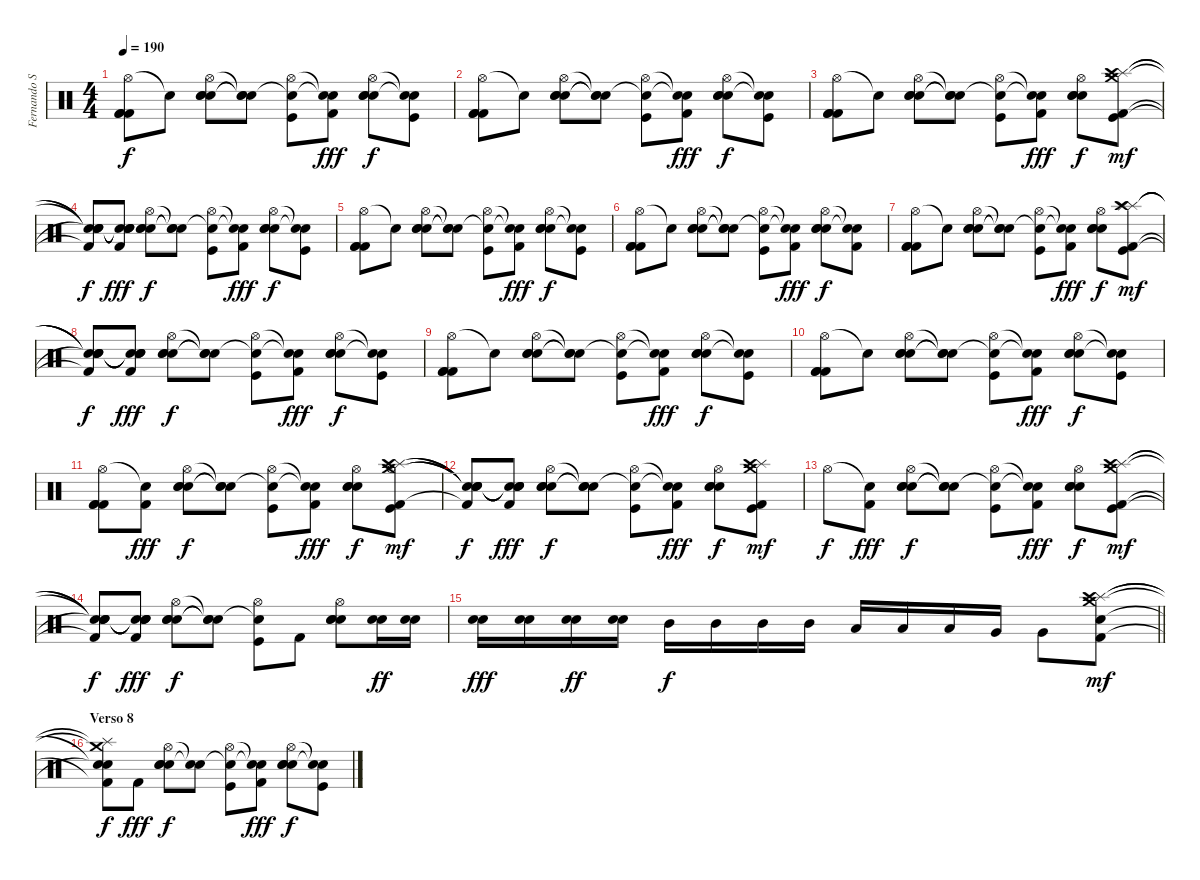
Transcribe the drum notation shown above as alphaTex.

\track ("Fernando Sarcella" "Fernando S") {instrument percussion}
\staff {score}
\articulation defaults
\ts (4 4)
\tempo 190
\clef neutral
\ks c
("Hi-Hat (open)" "Kick (hit) 2" "Kick (hit) 2" "Kick (hit) 2").8{dy f} "Snare (hit)"{t}.8 ("Hi-Hat (open)" "Electric Snare (hit)" "Electric Snare (hit)" "Electric Snare (hit)").8 ("Snare (hit)"{t} "Snare (hit)"{t} "Snare (hit)"{t}).8 ("Hi-Hat (open)" "Snare (hit)"{t} "Kick (hit)").8 ("Snare (hit)"{t} "Snare (hit)"{t} "Kick (hit) 2").8{dy fff} ("Hi-Hat (open)" "Electric Snare (hit)" "Electric Snare (hit)" "Electric Snare (hit)").8{dy f} ("Snare (hit)"{t} "Snare (hit)"{t} "Kick (hit)").8 |
("Hi-Hat (open)" "Kick (hit) 2" "Kick (hit) 2" "Kick (hit) 2").8 "Snare (hit)"{t}.8 ("Hi-Hat (open)" "Electric Snare (hit)" "Electric Snare (hit)" "Electric Snare (hit)").8 ("Snare (hit)"{t} "Snare (hit)"{t} "Snare (hit)"{t}).8 ("Hi-Hat (open)" "Snare (hit)"{t} "Kick (hit)").8 ("Snare (hit)"{t} "Snare (hit)"{t} "Kick (hit) 2").8{dy fff} ("Hi-Hat (open)" "Electric Snare (hit)" "Electric Snare (hit)" "Electric Snare (hit)").8{dy f} ("Snare (hit)"{t} "Snare (hit)"{t} "Kick (hit)").8 |
("Hi-Hat (open)" "Kick (hit) 2" "Kick (hit) 2" "Kick (hit) 2").8 "Snare (hit)"{t}.8 ("Hi-Hat (open)" "Electric Snare (hit)" "Electric Snare (hit)" "Electric Snare (hit)").8 ("Snare (hit)"{t} "Snare (hit)"{t} "Snare (hit)"{t}).8 ("Hi-Hat (open)" "Snare (hit)"{t} "Kick (hit)").8 ("Snare (hit)"{t} "Snare (hit)"{t} "Kick (hit) 2").8{dy fff} ("Hi-Hat (open)" "Electric Snare (hit)" "Electric Snare (hit)" "Electric Snare (hit)").8{dy f} ("Crash medium (hit)" "Splash (hit)" "Crash high (hit)" "Kick (hit) 2" "Kick (hit)").8{dy mf} |
("Snare (hit)"{t} "Snare (hit)"{t} "Snare (hit)"{t} "Snare (hit)"{t} "Kick (hit) 2"{t}).8{dy f} ("Snare (hit)"{t} "Snare (hit)"{t} "Snare (hit)"{t} "Snare (hit)"{t} "Kick (hit) 2").8{dy fff} ("Hi-Hat (open)" "Electric Snare (hit)" "Electric Snare (hit)" "Electric Snare (hit)").8{dy f} ("Snare (hit)"{t} "Snare (hit)"{t} "Snare (hit)"{t}).8 ("Hi-Hat (open)" "Snare (hit)"{t} "Kick (hit)").8 ("Snare (hit)"{t} "Snare (hit)"{t} "Kick (hit) 2").8{dy fff} ("Hi-Hat (open)" "Electric Snare (hit)" "Electric Snare (hit)" "Electric Snare (hit)").8{dy f} ("Snare (hit)"{t} "Snare (hit)"{t} "Kick (hit)").8 |
("Hi-Hat (open)" "Kick (hit) 2" "Kick (hit) 2" "Kick (hit) 2").8 "Snare (hit)"{t}.8 ("Hi-Hat (open)" "Electric Snare (hit)" "Electric Snare (hit)" "Electric Snare (hit)").8 ("Snare (hit)"{t} "Snare (hit)"{t} "Snare (hit)"{t}).8 ("Hi-Hat (open)" "Snare (hit)"{t} "Kick (hit)").8 ("Snare (hit)"{t} "Snare (hit)"{t} "Kick (hit) 2").8{dy fff} ("Hi-Hat (open)" "Electric Snare (hit)" "Electric Snare (hit)" "Electric Snare (hit)").8{dy f} ("Snare (hit)"{t} "Snare (hit)"{t} "Kick (hit)").8 |
("Hi-Hat (open)" "Kick (hit) 2" "Kick (hit) 2" "Kick (hit) 2").8 "Snare (hit)"{t}.8 ("Hi-Hat (open)" "Electric Snare (hit)" "Electric Snare (hit)" "Electric Snare (hit)").8 ("Snare (hit)"{t} "Snare (hit)"{t} "Snare (hit)"{t}).8 ("Hi-Hat (open)" "Snare (hit)"{t} "Kick (hit)").8 ("Snare (hit)"{t} "Snare (hit)"{t} "Kick (hit) 2").8{dy fff} ("Hi-Hat (open)" "Electric Snare (hit)" "Electric Snare (hit)" "Electric Snare (hit)").8{dy f} ("Snare (hit)"{t} "Snare (hit)"{t} "Kick (hit) 2").8 |
("Hi-Hat (open)" "Kick (hit) 2" "Kick (hit) 2" "Kick (hit) 2").8 "Snare (hit)"{t}.8 ("Hi-Hat (open)" "Electric Snare (hit)" "Electric Snare (hit)" "Electric Snare (hit)").8 ("Snare (hit)"{t} "Snare (hit)"{t} "Snare (hit)"{t}).8 ("Hi-Hat (open)" "Snare (hit)"{t} "Kick (hit)").8 ("Snare (hit)"{t} "Snare (hit)"{t} "Kick (hit) 2").8{dy fff} ("Hi-Hat (open)" "Electric Snare (hit)" "Electric Snare (hit)" "Electric Snare (hit)").8{dy f} ("Splash (hit)" "Splash (hit)" "Crash high (hit)" "Kick (hit) 2" "Kick (hit)").8{dy mf} |
("Snare (hit)"{t} "Snare (hit)"{t} "Snare (hit)"{t} "Snare (hit)"{t} "Kick (hit) 2"{t}).8{dy f} ("Snare (hit)"{t} "Snare (hit)"{t} "Snare (hit)"{t} "Snare (hit)"{t} "Kick (hit) 2").8{dy fff} ("Hi-Hat (open)" "Electric Snare (hit)" "Electric Snare (hit)" "Electric Snare (hit)").8{dy f} ("Snare (hit)"{t} "Snare (hit)"{t} "Snare (hit)"{t}).8 ("Hi-Hat (open)" "Snare (hit)"{t} "Kick (hit)").8 ("Snare (hit)"{t} "Snare (hit)"{t} "Kick (hit) 2").8{dy fff} ("Hi-Hat (open)" "Electric Snare (hit)" "Electric Snare (hit)" "Electric Snare (hit)").8{dy f} ("Snare (hit)"{t} "Snare (hit)"{t} "Kick (hit)").8 |
("Hi-Hat (open)" "Kick (hit) 2" "Kick (hit) 2" "Kick (hit) 2").8 "Snare (hit)"{t}.8 ("Hi-Hat (open)" "Electric Snare (hit)" "Electric Snare (hit)" "Electric Snare (hit)").8 ("Snare (hit)"{t} "Snare (hit)"{t} "Snare (hit)"{t}).8 ("Hi-Hat (open)" "Snare (hit)"{t} "Kick (hit)").8 ("Snare (hit)"{t} "Snare (hit)"{t} "Kick (hit) 2").8{dy fff} ("Hi-Hat (open)" "Electric Snare (hit)" "Electric Snare (hit)" "Electric Snare (hit)").8{dy f} ("Snare (hit)"{t} "Snare (hit)"{t} "Kick (hit)").8 |
("Hi-Hat (open)" "Kick (hit) 2" "Kick (hit) 2" "Kick (hit) 2").8 "Snare (hit)"{t}.8 ("Hi-Hat (open)" "Electric Snare (hit)" "Electric Snare (hit)" "Electric Snare (hit)").8 ("Snare (hit)"{t} "Snare (hit)"{t} "Snare (hit)"{t}).8 ("Hi-Hat (open)" "Snare (hit)"{t} "Kick (hit)").8 ("Snare (hit)"{t} "Snare (hit)"{t} "Kick (hit) 2").8{dy fff} ("Hi-Hat (open)" "Electric Snare (hit)" "Electric Snare (hit)" "Electric Snare (hit)").8{dy f} ("Snare (hit)"{t} "Snare (hit)"{t} "Kick (hit)").8 |
("Hi-Hat (open)" "Kick (hit) 2" "Kick (hit) 2" "Kick (hit) 2").8 ("Snare (hit)"{t} "Kick (hit) 2").8{dy fff} ("Hi-Hat (open)" "Electric Snare (hit)" "Electric Snare (hit)" "Electric Snare (hit)").8{dy f} ("Snare (hit)"{t} "Snare (hit)"{t} "Snare (hit)"{t}).8 ("Hi-Hat (open)" "Snare (hit)"{t} "Kick (hit)").8 ("Snare (hit)"{t} "Snare (hit)"{t} "Kick (hit) 2").8{dy fff} ("Hi-Hat (open)" "Electric Snare (hit)" "Electric Snare (hit)" "Electric Snare (hit)").8{dy f} ("Crash medium (hit)" "Splash (hit)" "Hi-Hat (open)" "Crash high (hit)" "Kick (hit) 2" "Kick (hit)").8{dy mf} |
("Snare (hit)"{t} "Snare (hit)"{t} "Snare (hit)"{t} "Snare (hit)"{t} "Kick (hit) 2"{t}).8{dy f} ("Snare (hit)"{t} "Snare (hit)"{t} "Snare (hit)"{t} "Snare (hit)"{t} "Kick (hit) 2").8{dy fff} ("Hi-Hat (open)" "Electric Snare (hit)" "Electric Snare (hit)" "Electric Snare (hit)").8{dy f} ("Snare (hit)"{t} "Snare (hit)"{t} "Snare (hit)"{t}).8 ("Hi-Hat (open)" "Snare (hit)"{t} "Kick (hit)").8 ("Snare (hit)"{t} "Snare (hit)"{t} "Kick (hit) 2").8{dy fff} ("Hi-Hat (open)" "Electric Snare (hit)" "Electric Snare (hit)" "Electric Snare (hit)").8{dy f} ("Crash medium (hit)" "Splash (hit)" "Crash high (hit)" "Kick (hit) 2" "Kick (hit)").8{dy mf} |
"Hi-Hat (open)".8{dy f} ("Snare (hit)"{t} "Kick (hit) 2").8{dy fff} ("Hi-Hat (open)" "Electric Snare (hit)" "Electric Snare (hit)" "Electric Snare (hit)").8{dy f} ("Snare (hit)"{t} "Snare (hit)"{t} "Snare (hit)"{t}).8 ("Hi-Hat (open)" "Snare (hit)"{t} "Kick (hit)").8 ("Snare (hit)"{t} "Snare (hit)"{t} "Kick (hit) 2").8{dy fff} ("Hi-Hat (open)" "Electric Snare (hit)" "Electric Snare (hit)" "Electric Snare (hit)").8{dy f} ("Crash medium (hit)" "Splash (hit)" "Crash high (hit)" "Kick (hit) 2" "Kick (hit)").8{dy mf} |
("Snare (hit)"{t} "Snare (hit)"{t} "Snare (hit)"{t} "Snare (hit)"{t} "Kick (hit) 2"{t}).8{dy f} ("Snare (hit)"{t} "Snare (hit)"{t} "Snare (hit)"{t} "Snare (hit)"{t} "Kick (hit) 2").8{dy fff} ("Hi-Hat (open)" "Electric Snare (hit)" "Electric Snare (hit)" "Electric Snare (hit)").8{dy f} ("Snare (hit)"{t} "Snare (hit)"{t} "Snare (hit)"{t}).8 ("Hi-Hat (open)" "Snare (hit)"{t} "Kick (hit)").8 "Kick (hit) 2".8 ("Hi-Hat (open)" "Electric Snare (hit)" "Electric Snare (hit)" "Electric Snare (hit)").8 ("Electric Snare (hit)" "Electric Snare (hit)").16{dy ff} ("Electric Snare (hit)" "Electric Snare (hit)").16 |
\barLineRight lightlight
("Electric Snare (hit)" "Electric Snare (hit)").16{dy fff} ("Electric Snare (hit)" "Electric Snare (hit)").16 ("Electric Snare (hit)" "Electric Snare (hit)").16{dy ff} ("Electric Snare (hit)" "Electric Snare (hit)").16 "Mid Tom (hit)".16{dy f} "Mid Tom (hit)".16 "Mid Tom (hit)".16 "Mid Tom (hit)".16 "Low Tom (hit)".16 "Low Tom (hit)".16 "Low Tom (hit)".16 "Very Low Tom (hit)".16 "Very Low Tom (hit)".8 ("Crash medium (hit)" "Splash (hit)" "Crash high (hit)" "Kick (hit) 2" "Snare (hit)").8{dy mf} |
\section ("" "Verso 8")
("Crash medium (hit)"{t} "Splash (hit)"{t} "Snare (hit)"{t} "Snare (hit)"{t} "Kick (hit) 2"{t}).8{dy f} "Kick (hit) 2".8{dy fff} ("Hi-Hat (open)" "Electric Snare (hit)" "Electric Snare (hit)" "Electric Snare (hit)").8{dy f} ("Snare (hit)"{t} "Snare (hit)"{t}).8 ("Hi-Hat (open)" "Snare (hit)"{t} "Kick (hit)").8 ("Snare (hit)"{t} "Snare (hit)"{t} "Kick (hit) 2").8{dy fff} ("Hi-Hat (open)" "Electric Snare (hit)" "Electric Snare (hit)" "Electric Snare (hit)").8{dy f} ("Snare (hit)"{t} "Snare (hit)"{t} "Kick (hit)").8
